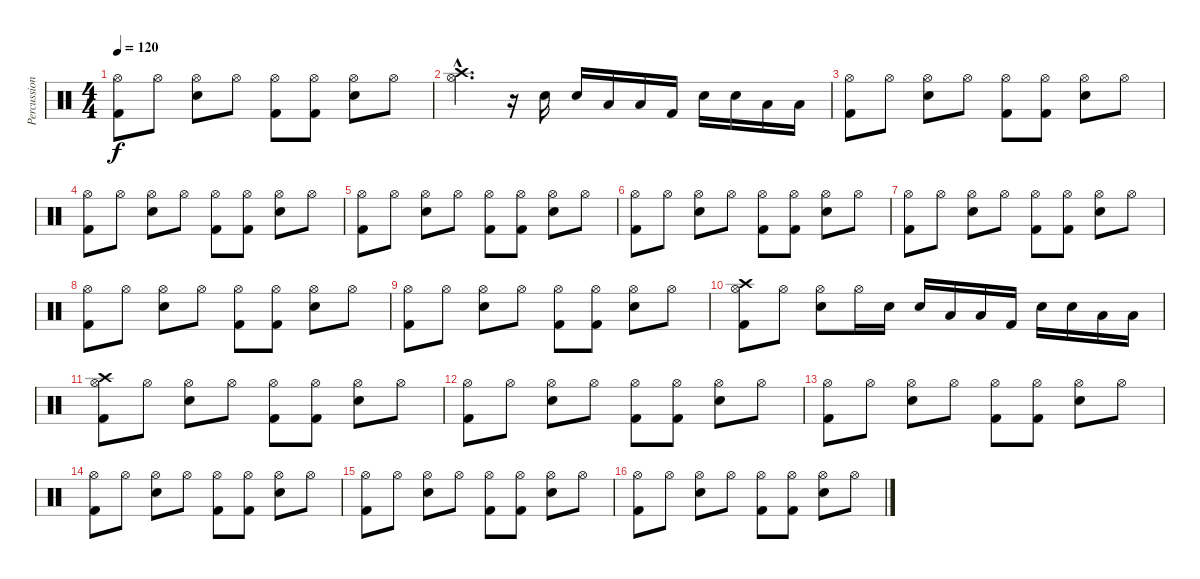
\track ("Percussion" "Percussion") {instrument percussion}
\staff {score}
\articulation defaults
\ts (4 4)
\tempo 120
\clef neutral
\ks c
("Hi-Hat (open)" "Kick (hit) 2").8{dy f} "Hi-Hat (open)".8 ("Hi-Hat (open)" "Snare (hit) 2").8 "Hi-Hat (open)".8 ("Hi-Hat (open)" "Kick (hit) 2").8 ("Hi-Hat (open)" "Kick (hit) 2").8 ("Hi-Hat (open)" "Snare (hit) 2").8 "Hi-Hat (open)".8 |
("Hi-Hat (open)"{hac} "Crash high (hit)"{hac}).4{d} r.16 "Snare (hit) 2".16 "Snare (hit) 2".16 "Low Floor Tom (hit)".16 "Low Floor Tom (hit)".16 "Kick (hit) 2".16 "Snare (hit) 2".16 "Snare (hit) 2".16 "Low Floor Tom (hit)".16 "Low Floor Tom (hit)".16 |
("Hi-Hat (open)" "Kick (hit) 2").8 "Hi-Hat (open)".8 ("Hi-Hat (open)" "Snare (hit) 2").8 "Hi-Hat (open)".8 ("Hi-Hat (open)" "Kick (hit) 2").8 ("Hi-Hat (open)" "Kick (hit) 2").8 ("Hi-Hat (open)" "Snare (hit) 2").8 "Hi-Hat (open)".8 |
("Hi-Hat (open)" "Kick (hit) 2").8 "Hi-Hat (open)".8 ("Hi-Hat (open)" "Snare (hit) 2").8 "Hi-Hat (open)".8 ("Hi-Hat (open)" "Kick (hit) 2").8 ("Hi-Hat (open)" "Kick (hit) 2").8 ("Hi-Hat (open)" "Snare (hit) 2").8 "Hi-Hat (open)".8 |
("Hi-Hat (open)" "Kick (hit) 2").8 "Hi-Hat (open)".8 ("Hi-Hat (open)" "Snare (hit) 2").8 "Hi-Hat (open)".8 ("Hi-Hat (open)" "Kick (hit) 2").8 ("Hi-Hat (open)" "Kick (hit) 2").8 ("Hi-Hat (open)" "Snare (hit) 2").8 "Hi-Hat (open)".8 |
("Hi-Hat (open)" "Kick (hit) 2").8 "Hi-Hat (open)".8 ("Hi-Hat (open)" "Snare (hit) 2").8 "Hi-Hat (open)".8 ("Hi-Hat (open)" "Kick (hit) 2").8 ("Hi-Hat (open)" "Kick (hit) 2").8 ("Hi-Hat (open)" "Snare (hit) 2").8 "Hi-Hat (open)".8 |
("Hi-Hat (open)" "Kick (hit) 2").8 "Hi-Hat (open)".8 ("Hi-Hat (open)" "Snare (hit) 2").8 "Hi-Hat (open)".8 ("Hi-Hat (open)" "Kick (hit) 2").8 ("Hi-Hat (open)" "Kick (hit) 2").8 ("Hi-Hat (open)" "Snare (hit) 2").8 "Hi-Hat (open)".8 |
("Hi-Hat (open)" "Kick (hit) 2").8 "Hi-Hat (open)".8 ("Hi-Hat (open)" "Snare (hit) 2").8 "Hi-Hat (open)".8 ("Hi-Hat (open)" "Kick (hit) 2").8 ("Hi-Hat (open)" "Kick (hit) 2").8 ("Hi-Hat (open)" "Snare (hit) 2").8 "Hi-Hat (open)".8 |
("Hi-Hat (open)" "Kick (hit) 2").8 "Hi-Hat (open)".8 ("Hi-Hat (open)" "Snare (hit) 2").8 "Hi-Hat (open)".8 ("Hi-Hat (open)" "Kick (hit) 2").8 ("Hi-Hat (open)" "Kick (hit) 2").8 ("Hi-Hat (open)" "Snare (hit) 2").8 "Hi-Hat (open)".8 |
("Hi-Hat (open)" "Crash high (hit)" "Kick (hit) 2").8 "Hi-Hat (open)".8 ("Hi-Hat (open)" "Snare (hit) 2").8 "Hi-Hat (open)".16 "Snare (hit) 2".16 "Snare (hit) 2".16 "Low Floor Tom (hit)".16 "Low Floor Tom (hit)".16 "Kick (hit) 2".16 "Snare (hit) 2".16 "Snare (hit) 2".16 "Low Floor Tom (hit)".16 "Low Floor Tom (hit)".16 |
("Hi-Hat (open)" "Kick (hit) 2" "Crash high (hit)").8 "Hi-Hat (open)".8 ("Hi-Hat (open)" "Snare (hit) 2").8 "Hi-Hat (open)".8 ("Hi-Hat (open)" "Kick (hit) 2").8 ("Hi-Hat (open)" "Kick (hit) 2").8 ("Hi-Hat (open)" "Snare (hit) 2").8 "Hi-Hat (open)".8 |
("Hi-Hat (open)" "Kick (hit) 2").8 "Hi-Hat (open)".8 ("Hi-Hat (open)" "Snare (hit) 2").8 "Hi-Hat (open)".8 ("Hi-Hat (open)" "Kick (hit) 2").8 ("Hi-Hat (open)" "Kick (hit) 2").8 ("Hi-Hat (open)" "Snare (hit) 2").8 "Hi-Hat (open)".8 |
("Hi-Hat (open)" "Kick (hit) 2").8 "Hi-Hat (open)".8 ("Hi-Hat (open)" "Snare (hit) 2").8 "Hi-Hat (open)".8 ("Hi-Hat (open)" "Kick (hit) 2").8 ("Hi-Hat (open)" "Kick (hit) 2").8 ("Hi-Hat (open)" "Snare (hit) 2").8 "Hi-Hat (open)".8 |
("Hi-Hat (open)" "Kick (hit) 2").8 "Hi-Hat (open)".8 ("Hi-Hat (open)" "Snare (hit) 2").8 "Hi-Hat (open)".8 ("Hi-Hat (open)" "Kick (hit) 2").8 ("Hi-Hat (open)" "Kick (hit) 2").8 ("Hi-Hat (open)" "Snare (hit) 2").8 "Hi-Hat (open)".8 |
("Hi-Hat (open)" "Kick (hit) 2").8 "Hi-Hat (open)".8 ("Hi-Hat (open)" "Snare (hit) 2").8 "Hi-Hat (open)".8 ("Hi-Hat (open)" "Kick (hit) 2").8 ("Hi-Hat (open)" "Kick (hit) 2").8 ("Hi-Hat (open)" "Snare (hit) 2").8 "Hi-Hat (open)".8 |
("Hi-Hat (open)" "Kick (hit) 2").8 "Hi-Hat (open)".8 ("Hi-Hat (open)" "Snare (hit) 2").8 "Hi-Hat (open)".8 ("Hi-Hat (open)" "Kick (hit) 2").8 ("Hi-Hat (open)" "Kick (hit) 2").8 ("Hi-Hat (open)" "Snare (hit) 2").8 "Hi-Hat (open)".8
